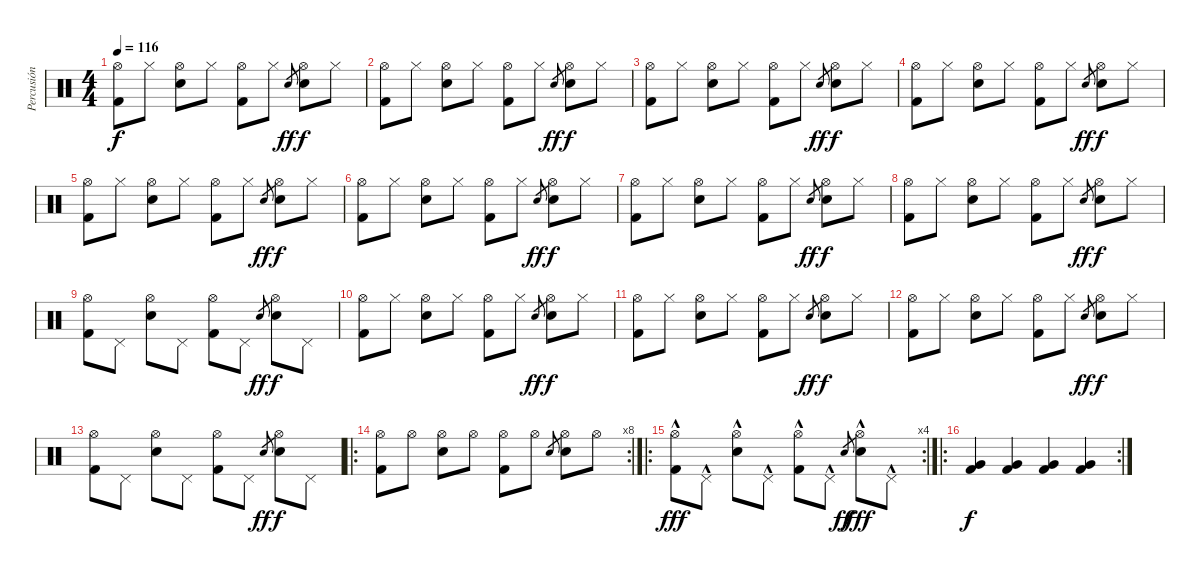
\track ("Percusión" "Percusión") {instrument percussion}
\staff {score}
\articulation defaults
\ts (4 4)
\tempo 116
\clef neutral
\ks c
("Hi-Hat (open)" "Kick (hit) 2").8{dy f} "Hi-Hat (closed)".8 ("Hi-Hat (open)" "Electric Snare (hit)").8 "Hi-Hat (closed)".8 ("Hi-Hat (open)" "Kick (hit) 2").8 "Hi-Hat (closed)".8 "Electric Snare (hit)".8{gr dy ff} ("Hi-Hat (open)" "Electric Snare (hit)").8{dy f} "Hi-Hat (closed)".8 |
("Hi-Hat (open)" "Kick (hit) 2").8 "Hi-Hat (closed)".8 ("Hi-Hat (open)" "Electric Snare (hit)").8 "Hi-Hat (closed)".8 ("Hi-Hat (open)" "Kick (hit) 2").8 "Hi-Hat (closed)".8 "Electric Snare (hit)".8{gr dy ff} ("Hi-Hat (open)" "Electric Snare (hit)").8{dy f} "Hi-Hat (closed)".8 |
("Hi-Hat (open)" "Kick (hit) 2").8 "Hi-Hat (closed)".8 ("Hi-Hat (open)" "Electric Snare (hit)").8 "Hi-Hat (closed)".8 ("Hi-Hat (open)" "Kick (hit) 2").8 "Hi-Hat (closed)".8 "Electric Snare (hit)".8{gr dy ff} ("Hi-Hat (open)" "Electric Snare (hit)").8{dy f} "Hi-Hat (closed)".8 |
("Hi-Hat (open)" "Kick (hit) 2").8 "Hi-Hat (closed)".8 ("Hi-Hat (open)" "Electric Snare (hit)").8 "Hi-Hat (closed)".8 ("Hi-Hat (open)" "Kick (hit) 2").8 "Hi-Hat (closed)".8 "Electric Snare (hit)".8{gr dy ff} ("Hi-Hat (open)" "Electric Snare (hit)").8{dy f} "Hi-Hat (closed)".8 |
("Hi-Hat (open)" "Kick (hit) 2").8 "Hi-Hat (closed)".8 ("Hi-Hat (open)" "Electric Snare (hit)").8 "Hi-Hat (closed)".8 ("Hi-Hat (open)" "Kick (hit) 2").8 "Hi-Hat (closed)".8 "Electric Snare (hit)".8{gr dy ff} ("Hi-Hat (open)" "Electric Snare (hit)").8{dy f} "Hi-Hat (closed)".8 |
("Hi-Hat (open)" "Kick (hit) 2").8 "Hi-Hat (closed)".8 ("Hi-Hat (open)" "Electric Snare (hit)").8 "Hi-Hat (closed)".8 ("Hi-Hat (open)" "Kick (hit) 2").8 "Hi-Hat (closed)".8 "Electric Snare (hit)".8{gr dy ff} ("Hi-Hat (open)" "Electric Snare (hit)").8{dy f} "Hi-Hat (closed)".8 |
("Hi-Hat (open)" "Kick (hit) 2").8 "Hi-Hat (closed)".8 ("Hi-Hat (open)" "Electric Snare (hit)").8 "Hi-Hat (closed)".8 ("Hi-Hat (open)" "Kick (hit) 2").8 "Hi-Hat (closed)".8 "Electric Snare (hit)".8{gr dy ff} ("Hi-Hat (open)" "Electric Snare (hit)").8{dy f} "Hi-Hat (closed)".8 |
("Hi-Hat (open)" "Kick (hit) 2").8 "Hi-Hat (closed)".8 ("Hi-Hat (open)" "Electric Snare (hit)").8 "Hi-Hat (closed)".8 ("Hi-Hat (open)" "Kick (hit) 2").8 "Hi-Hat (closed)".8 "Electric Snare (hit)".8{gr dy ff} ("Hi-Hat (open)" "Electric Snare (hit)").8{dy f} "Hi-Hat (closed)".8 |
("Hi-Hat (open)" "Kick (hit) 2").8 "Pedal Hi-Hat (hit)".8 ("Hi-Hat (open)" "Electric Snare (hit)").8 "Pedal Hi-Hat (hit)".8 ("Hi-Hat (open)" "Kick (hit) 2").8 "Pedal Hi-Hat (hit)".8 "Electric Snare (hit)".8{gr dy ff} ("Hi-Hat (open)" "Electric Snare (hit)").8{dy f} "Pedal Hi-Hat (hit)".8 |
("Hi-Hat (open)" "Kick (hit) 2").8 "Hi-Hat (closed)".8 ("Hi-Hat (open)" "Electric Snare (hit)").8 "Hi-Hat (closed)".8 ("Hi-Hat (open)" "Kick (hit) 2").8 "Hi-Hat (closed)".8 "Electric Snare (hit)".8{gr dy ff} ("Hi-Hat (open)" "Electric Snare (hit)").8{dy f} "Hi-Hat (closed)".8 |
("Hi-Hat (open)" "Kick (hit) 2").8 "Hi-Hat (closed)".8 ("Hi-Hat (open)" "Electric Snare (hit)").8 "Hi-Hat (closed)".8 ("Hi-Hat (open)" "Kick (hit) 2").8 "Hi-Hat (closed)".8 "Electric Snare (hit)".8{gr dy ff} ("Hi-Hat (open)" "Electric Snare (hit)").8{dy f} "Hi-Hat (closed)".8 |
("Hi-Hat (open)" "Kick (hit) 2").8 "Hi-Hat (closed)".8 ("Hi-Hat (open)" "Electric Snare (hit)").8 "Hi-Hat (closed)".8 ("Hi-Hat (open)" "Kick (hit) 2").8 "Hi-Hat (closed)".8 "Electric Snare (hit)".8{gr dy ff} ("Hi-Hat (open)" "Electric Snare (hit)").8{dy f} "Hi-Hat (closed)".8 |
("Hi-Hat (open)" "Kick (hit) 2").8 "Pedal Hi-Hat (hit)".8 ("Hi-Hat (open)" "Electric Snare (hit)").8 "Pedal Hi-Hat (hit)".8 ("Hi-Hat (open)" "Kick (hit) 2").8 "Pedal Hi-Hat (hit)".8 "Electric Snare (hit)".8{gr dy ff} ("Hi-Hat (open)" "Electric Snare (hit)").8{dy f} "Pedal Hi-Hat (hit)".8 |
\ro
\rc 8
("Hi-Hat (open)" "Kick (hit) 2").8 "Hi-Hat (open)".8 ("Hi-Hat (open)" "Electric Snare (hit)").8 "Hi-Hat (open)".8 ("Hi-Hat (open)" "Kick (hit) 2").8 "Hi-Hat (open)".8 "Electric Snare (hit)".8{gr} ("Hi-Hat (open)" "Electric Snare (hit)").8 "Hi-Hat (open)".8 |
\ro
\rc 4
("Hi-Hat (open)"{hac} "Kick (hit) 2"{hac}).8{dy fff} "Pedal Hi-Hat (hit)"{hac}.8 ("Hi-Hat (open)"{hac} "Electric Snare (hit)"{hac}).8 "Pedal Hi-Hat (hit)"{hac}.8 ("Hi-Hat (open)"{hac} "Kick (hit) 2"{hac}).8 "Pedal Hi-Hat (hit)"{hac}.8 "Electric Snare (hit)".8{gr dy ff} ("Hi-Hat (open)"{hac} "Electric Snare (hit)"{hac}).8{dy fff} "Pedal Hi-Hat (hit)"{hac}.8 |
\ro
\rc 2
("Very Low Tom (hit)" "Kick (hit) 2").4{dy f} ("Very Low Tom (hit)" "Kick (hit) 2").4 ("Very Low Tom (hit)" "Kick (hit) 2").4 ("Very Low Tom (hit)" "Kick (hit) 2").4
